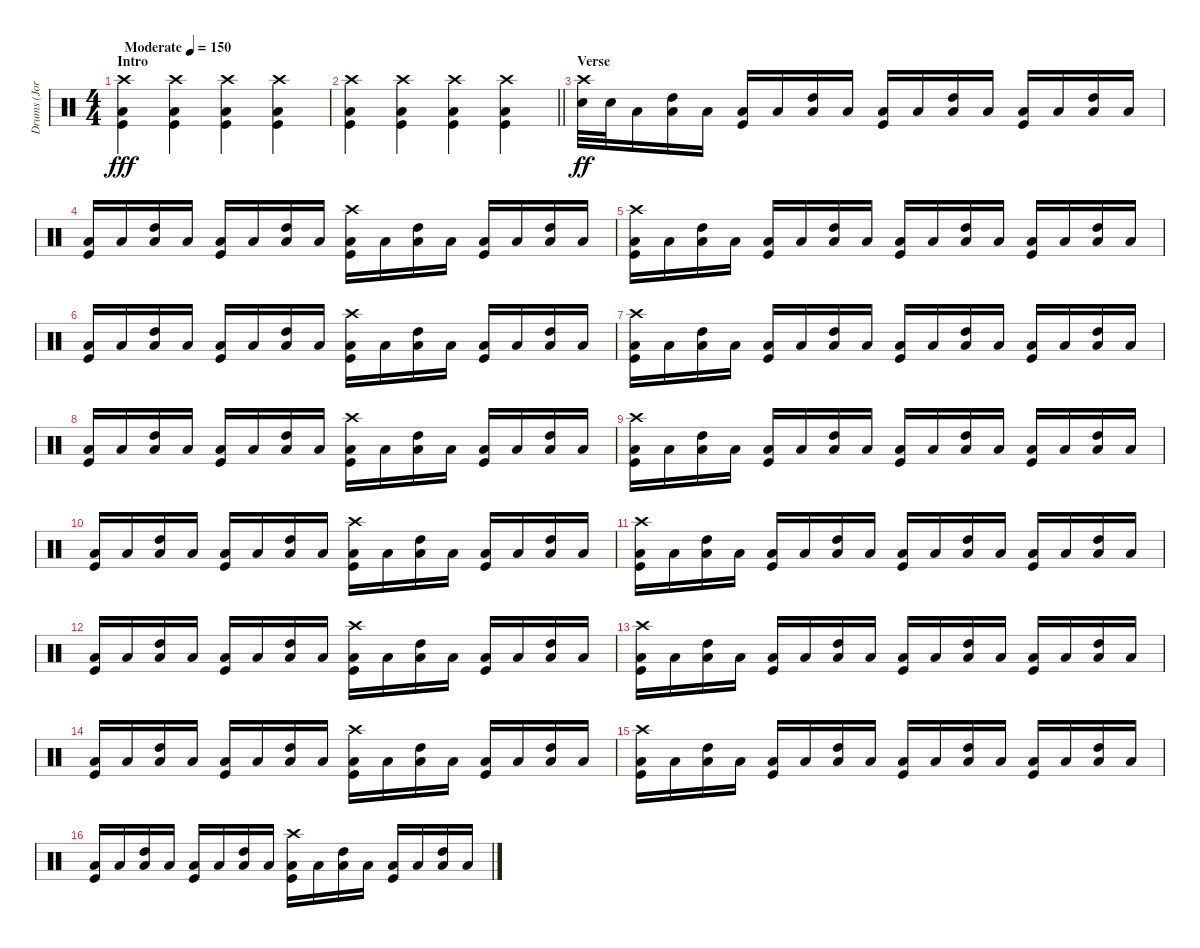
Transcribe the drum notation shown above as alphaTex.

\track ("Drums (Jordan Hastings)" "Drums (Jor") {instrument percussion}
\staff {score}
\articulation defaults
\ts (4 4)
\section ("" "Intro")
\tempo (150 "Moderate")
\clef neutral
\ks c
("Crash high (hit)" "Low Floor Tom (hit)" "Kick (hit)").4{dy fff} ("Crash high (hit)" "Low Floor Tom (hit)" "Kick (hit)").4 ("Crash high (hit)" "Low Floor Tom (hit)" "Kick (hit)").4 ("Crash high (hit)" "Low Floor Tom (hit)" "Kick (hit)").4 |
\barLineRight lightlight
("Crash high (hit)" "Low Floor Tom (hit)" "Kick (hit)").4 ("Crash high (hit)" "Low Floor Tom (hit)" "Kick (hit)").4 ("Crash high (hit)" "Low Floor Tom (hit)" "Kick (hit)").4 ("Crash high (hit)" "Low Floor Tom (hit)" "Kick (hit)").4 |
\section ("" "Verse")
("Crash high (hit)" "Snare (hit) 2").32{dy ff} "Snare (hit) 2".32 "Low Floor Tom (hit)".16 ("High Tom (hit)" "Low Floor Tom (hit)").16 "Low Floor Tom (hit)".16 ("Kick (hit)" "Low Floor Tom (hit)").16 "Low Floor Tom (hit)".16 ("High Tom (hit)" "Low Floor Tom (hit)").16 "Low Floor Tom (hit)".16 ("Kick (hit)" "Low Floor Tom (hit)").16 "Low Floor Tom (hit)".16 ("High Tom (hit)" "Low Floor Tom (hit)").16 "Low Floor Tom (hit)".16 ("Kick (hit)" "Low Floor Tom (hit)").16 "Low Floor Tom (hit)".16 ("High Tom (hit)" "Low Floor Tom (hit)").16 "Low Floor Tom (hit)".16 |
("Kick (hit)" "Low Floor Tom (hit)").16 "Low Floor Tom (hit)".16 ("High Tom (hit)" "Low Floor Tom (hit)").16 "Low Floor Tom (hit)".16 ("Kick (hit)" "Low Floor Tom (hit)").16 "Low Floor Tom (hit)".16 ("High Tom (hit)" "Low Floor Tom (hit)").16 "Low Floor Tom (hit)".16 ("Crash high (hit)" "Kick (hit)" "Low Floor Tom (hit)").16 "Low Floor Tom (hit)".16 ("High Tom (hit)" "Low Floor Tom (hit)").16 "Low Floor Tom (hit)".16 ("Kick (hit)" "Low Floor Tom (hit)").16 "Low Floor Tom (hit)".16 ("High Tom (hit)" "Low Floor Tom (hit)").16 "Low Floor Tom (hit)".16 |
("Crash high (hit)" "Kick (hit)" "Low Floor Tom (hit)").16 "Low Floor Tom (hit)".16 ("High Tom (hit)" "Low Floor Tom (hit)").16 "Low Floor Tom (hit)".16 ("Kick (hit)" "Low Floor Tom (hit)").16 "Low Floor Tom (hit)".16 ("High Tom (hit)" "Low Floor Tom (hit)").16 "Low Floor Tom (hit)".16 ("Kick (hit)" "Low Floor Tom (hit)").16 "Low Floor Tom (hit)".16 ("High Tom (hit)" "Low Floor Tom (hit)").16 "Low Floor Tom (hit)".16 ("Kick (hit)" "Low Floor Tom (hit)").16 "Low Floor Tom (hit)".16 ("High Tom (hit)" "Low Floor Tom (hit)").16 "Low Floor Tom (hit)".16 |
("Kick (hit)" "Low Floor Tom (hit)").16 "Low Floor Tom (hit)".16 ("High Tom (hit)" "Low Floor Tom (hit)").16 "Low Floor Tom (hit)".16 ("Kick (hit)" "Low Floor Tom (hit)").16 "Low Floor Tom (hit)".16 ("High Tom (hit)" "Low Floor Tom (hit)").16 "Low Floor Tom (hit)".16 ("Crash high (hit)" "Kick (hit)" "Low Floor Tom (hit)").16 "Low Floor Tom (hit)".16 ("High Tom (hit)" "Low Floor Tom (hit)").16 "Low Floor Tom (hit)".16 ("Kick (hit)" "Low Floor Tom (hit)").16 "Low Floor Tom (hit)".16 ("High Tom (hit)" "Low Floor Tom (hit)").16 "Low Floor Tom (hit)".16 |
("Crash high (hit)" "Kick (hit)" "Low Floor Tom (hit)").16 "Low Floor Tom (hit)".16 ("High Tom (hit)" "Low Floor Tom (hit)").16 "Low Floor Tom (hit)".16 ("Kick (hit)" "Low Floor Tom (hit)").16 "Low Floor Tom (hit)".16 ("High Tom (hit)" "Low Floor Tom (hit)").16 "Low Floor Tom (hit)".16 ("Kick (hit)" "Low Floor Tom (hit)").16 "Low Floor Tom (hit)".16 ("High Tom (hit)" "Low Floor Tom (hit)").16 "Low Floor Tom (hit)".16 ("Kick (hit)" "Low Floor Tom (hit)").16 "Low Floor Tom (hit)".16 ("High Tom (hit)" "Low Floor Tom (hit)").16 "Low Floor Tom (hit)".16 |
("Kick (hit)" "Low Floor Tom (hit)").16 "Low Floor Tom (hit)".16 ("High Tom (hit)" "Low Floor Tom (hit)").16 "Low Floor Tom (hit)".16 ("Kick (hit)" "Low Floor Tom (hit)").16 "Low Floor Tom (hit)".16 ("High Tom (hit)" "Low Floor Tom (hit)").16 "Low Floor Tom (hit)".16 ("Crash high (hit)" "Kick (hit)" "Low Floor Tom (hit)").16 "Low Floor Tom (hit)".16 ("High Tom (hit)" "Low Floor Tom (hit)").16 "Low Floor Tom (hit)".16 ("Kick (hit)" "Low Floor Tom (hit)").16 "Low Floor Tom (hit)".16 ("High Tom (hit)" "Low Floor Tom (hit)").16 "Low Floor Tom (hit)".16 |
("Crash high (hit)" "Kick (hit)" "Low Floor Tom (hit)").16 "Low Floor Tom (hit)".16 ("High Tom (hit)" "Low Floor Tom (hit)").16 "Low Floor Tom (hit)".16 ("Kick (hit)" "Low Floor Tom (hit)").16 "Low Floor Tom (hit)".16 ("High Tom (hit)" "Low Floor Tom (hit)").16 "Low Floor Tom (hit)".16 ("Kick (hit)" "Low Floor Tom (hit)").16 "Low Floor Tom (hit)".16 ("High Tom (hit)" "Low Floor Tom (hit)").16 "Low Floor Tom (hit)".16 ("Kick (hit)" "Low Floor Tom (hit)").16 "Low Floor Tom (hit)".16 ("High Tom (hit)" "Low Floor Tom (hit)").16 "Low Floor Tom (hit)".16 |
("Kick (hit)" "Low Floor Tom (hit)").16 "Low Floor Tom (hit)".16 ("High Tom (hit)" "Low Floor Tom (hit)").16 "Low Floor Tom (hit)".16 ("Kick (hit)" "Low Floor Tom (hit)").16 "Low Floor Tom (hit)".16 ("High Tom (hit)" "Low Floor Tom (hit)").16 "Low Floor Tom (hit)".16 ("Crash high (hit)" "Kick (hit)" "Low Floor Tom (hit)").16 "Low Floor Tom (hit)".16 ("High Tom (hit)" "Low Floor Tom (hit)").16 "Low Floor Tom (hit)".16 ("Kick (hit)" "Low Floor Tom (hit)").16 "Low Floor Tom (hit)".16 ("High Tom (hit)" "Low Floor Tom (hit)").16 "Low Floor Tom (hit)".16 |
("Crash high (hit)" "Kick (hit)" "Low Floor Tom (hit)").16 "Low Floor Tom (hit)".16 ("High Tom (hit)" "Low Floor Tom (hit)").16 "Low Floor Tom (hit)".16 ("Kick (hit)" "Low Floor Tom (hit)").16 "Low Floor Tom (hit)".16 ("High Tom (hit)" "Low Floor Tom (hit)").16 "Low Floor Tom (hit)".16 ("Kick (hit)" "Low Floor Tom (hit)").16 "Low Floor Tom (hit)".16 ("High Tom (hit)" "Low Floor Tom (hit)").16 "Low Floor Tom (hit)".16 ("Kick (hit)" "Low Floor Tom (hit)").16 "Low Floor Tom (hit)".16 ("High Tom (hit)" "Low Floor Tom (hit)").16 "Low Floor Tom (hit)".16 |
("Kick (hit)" "Low Floor Tom (hit)").16 "Low Floor Tom (hit)".16 ("High Tom (hit)" "Low Floor Tom (hit)").16 "Low Floor Tom (hit)".16 ("Kick (hit)" "Low Floor Tom (hit)").16 "Low Floor Tom (hit)".16 ("High Tom (hit)" "Low Floor Tom (hit)").16 "Low Floor Tom (hit)".16 ("Crash high (hit)" "Kick (hit)" "Low Floor Tom (hit)").16 "Low Floor Tom (hit)".16 ("High Tom (hit)" "Low Floor Tom (hit)").16 "Low Floor Tom (hit)".16 ("Kick (hit)" "Low Floor Tom (hit)").16 "Low Floor Tom (hit)".16 ("High Tom (hit)" "Low Floor Tom (hit)").16 "Low Floor Tom (hit)".16 |
("Crash high (hit)" "Kick (hit)" "Low Floor Tom (hit)").16 "Low Floor Tom (hit)".16 ("High Tom (hit)" "Low Floor Tom (hit)").16 "Low Floor Tom (hit)".16 ("Kick (hit)" "Low Floor Tom (hit)").16 "Low Floor Tom (hit)".16 ("High Tom (hit)" "Low Floor Tom (hit)").16 "Low Floor Tom (hit)".16 ("Kick (hit)" "Low Floor Tom (hit)").16 "Low Floor Tom (hit)".16 ("High Tom (hit)" "Low Floor Tom (hit)").16 "Low Floor Tom (hit)".16 ("Kick (hit)" "Low Floor Tom (hit)").16 "Low Floor Tom (hit)".16 ("High Tom (hit)" "Low Floor Tom (hit)").16 "Low Floor Tom (hit)".16 |
("Kick (hit)" "Low Floor Tom (hit)").16 "Low Floor Tom (hit)".16 ("High Tom (hit)" "Low Floor Tom (hit)").16 "Low Floor Tom (hit)".16 ("Kick (hit)" "Low Floor Tom (hit)").16 "Low Floor Tom (hit)".16 ("High Tom (hit)" "Low Floor Tom (hit)").16 "Low Floor Tom (hit)".16 ("Crash high (hit)" "Kick (hit)" "Low Floor Tom (hit)").16 "Low Floor Tom (hit)".16 ("High Tom (hit)" "Low Floor Tom (hit)").16 "Low Floor Tom (hit)".16 ("Kick (hit)" "Low Floor Tom (hit)").16 "Low Floor Tom (hit)".16 ("High Tom (hit)" "Low Floor Tom (hit)").16 "Low Floor Tom (hit)".16 |
("Crash high (hit)" "Kick (hit)" "Low Floor Tom (hit)").16 "Low Floor Tom (hit)".16 ("High Tom (hit)" "Low Floor Tom (hit)").16 "Low Floor Tom (hit)".16 ("Kick (hit)" "Low Floor Tom (hit)").16 "Low Floor Tom (hit)".16 ("High Tom (hit)" "Low Floor Tom (hit)").16 "Low Floor Tom (hit)".16 ("Kick (hit)" "Low Floor Tom (hit)").16 "Low Floor Tom (hit)".16 ("High Tom (hit)" "Low Floor Tom (hit)").16 "Low Floor Tom (hit)".16 ("Kick (hit)" "Low Floor Tom (hit)").16 "Low Floor Tom (hit)".16 ("High Tom (hit)" "Low Floor Tom (hit)").16 "Low Floor Tom (hit)".16 |
("Kick (hit)" "Low Floor Tom (hit)").16 "Low Floor Tom (hit)".16 ("High Tom (hit)" "Low Floor Tom (hit)").16 "Low Floor Tom (hit)".16 ("Kick (hit)" "Low Floor Tom (hit)").16 "Low Floor Tom (hit)".16 ("High Tom (hit)" "Low Floor Tom (hit)").16 "Low Floor Tom (hit)".16 ("Crash high (hit)" "Kick (hit)" "Low Floor Tom (hit)").16 "Low Floor Tom (hit)".16 ("High Tom (hit)" "Low Floor Tom (hit)").16 "Low Floor Tom (hit)".16 ("Kick (hit)" "Low Floor Tom (hit)").16 "Low Floor Tom (hit)".16 ("High Tom (hit)" "Low Floor Tom (hit)").16 "Low Floor Tom (hit)".16
